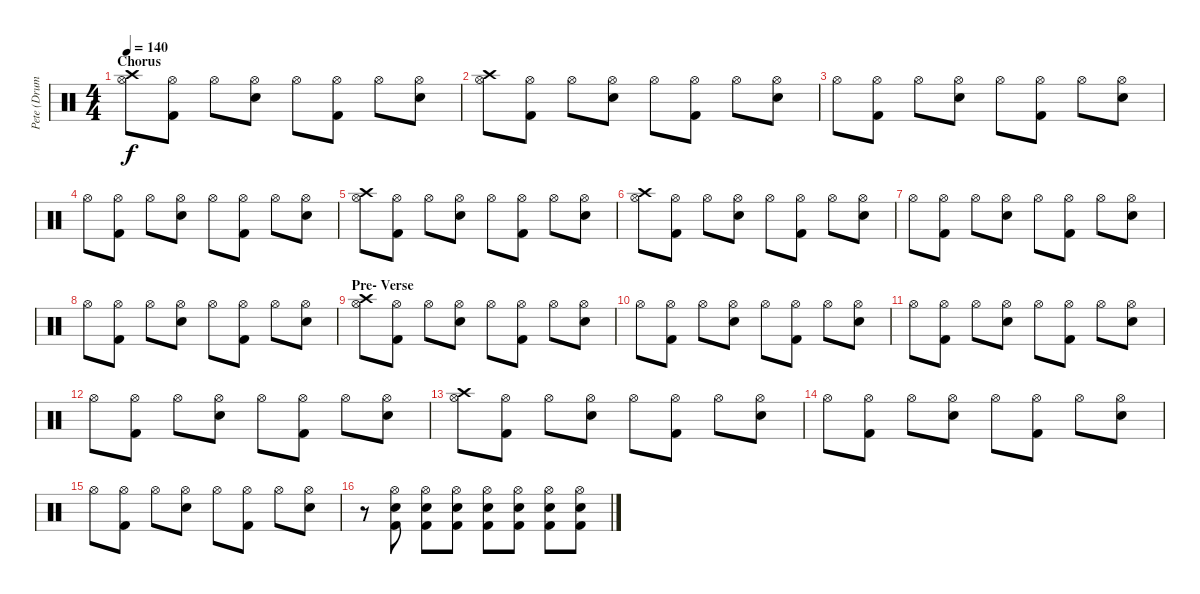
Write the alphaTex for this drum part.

\track ("Pete (Drums)" "Pete (Drum") {instrument percussion}
\staff {score}
\articulation defaults
\ts (4 4)
\section ("" "Chorus")
\tempo 140
\clef neutral
\ks c
("Hi-Hat (open)" "Crash high (hit)").8{dy f} ("Hi-Hat (open)" "Kick (hit) 2").8 "Hi-Hat (open)".8 ("Hi-Hat (open)" "Snare (hit) 2").8 "Hi-Hat (open)".8 ("Hi-Hat (open)" "Kick (hit) 2").8 "Hi-Hat (open)".8 ("Hi-Hat (open)" "Snare (hit) 2").8 |
("Hi-Hat (open)" "Crash high (hit)").8 ("Hi-Hat (open)" "Kick (hit) 2").8 "Hi-Hat (open)".8 ("Hi-Hat (open)" "Snare (hit) 2").8 "Hi-Hat (open)".8 ("Hi-Hat (open)" "Kick (hit) 2").8 "Hi-Hat (open)".8 ("Hi-Hat (open)" "Snare (hit) 2").8 |
"Hi-Hat (open)".8 ("Hi-Hat (open)" "Kick (hit) 2").8 "Hi-Hat (open)".8 ("Hi-Hat (open)" "Snare (hit) 2").8 "Hi-Hat (open)".8 ("Hi-Hat (open)" "Kick (hit) 2").8 "Hi-Hat (open)".8 ("Hi-Hat (open)" "Snare (hit) 2").8 |
"Hi-Hat (open)".8 ("Hi-Hat (open)" "Kick (hit) 2").8 "Hi-Hat (open)".8 ("Hi-Hat (open)" "Snare (hit) 2").8 "Hi-Hat (open)".8 ("Hi-Hat (open)" "Kick (hit) 2").8 "Hi-Hat (open)".8 ("Hi-Hat (open)" "Snare (hit) 2").8 |
("Hi-Hat (open)" "Crash high (hit)").8 ("Hi-Hat (open)" "Kick (hit) 2").8 "Hi-Hat (open)".8 ("Hi-Hat (open)" "Snare (hit) 2").8 "Hi-Hat (open)".8 ("Hi-Hat (open)" "Kick (hit) 2").8 "Hi-Hat (open)".8 ("Hi-Hat (open)" "Snare (hit) 2").8 |
("Hi-Hat (open)" "Crash high (hit)").8 ("Hi-Hat (open)" "Kick (hit) 2").8 "Hi-Hat (open)".8 ("Hi-Hat (open)" "Snare (hit) 2").8 "Hi-Hat (open)".8 ("Hi-Hat (open)" "Kick (hit) 2").8 "Hi-Hat (open)".8 ("Hi-Hat (open)" "Snare (hit) 2").8 |
"Hi-Hat (open)".8 ("Hi-Hat (open)" "Kick (hit) 2").8 "Hi-Hat (open)".8 ("Hi-Hat (open)" "Snare (hit) 2").8 "Hi-Hat (open)".8 ("Hi-Hat (open)" "Kick (hit) 2").8 "Hi-Hat (open)".8 ("Hi-Hat (open)" "Snare (hit) 2").8 |
"Hi-Hat (open)".8 ("Hi-Hat (open)" "Kick (hit) 2").8 "Hi-Hat (open)".8 ("Hi-Hat (open)" "Snare (hit) 2").8 "Hi-Hat (open)".8 ("Hi-Hat (open)" "Kick (hit) 2").8 "Hi-Hat (open)".8 ("Hi-Hat (open)" "Snare (hit) 2").8 |
\section ("" "Pre- Verse")
("Hi-Hat (open)" "Crash high (hit)").8 ("Hi-Hat (open)" "Kick (hit) 2").8 "Hi-Hat (open)".8 ("Hi-Hat (open)" "Snare (hit) 2").8 "Hi-Hat (open)".8 ("Hi-Hat (open)" "Kick (hit) 2").8 "Hi-Hat (open)".8 ("Hi-Hat (open)" "Snare (hit) 2").8 |
"Hi-Hat (open)".8 ("Hi-Hat (open)" "Kick (hit) 2").8 "Hi-Hat (open)".8 ("Hi-Hat (open)" "Snare (hit) 2").8 "Hi-Hat (open)".8 ("Hi-Hat (open)" "Kick (hit) 2").8 "Hi-Hat (open)".8 ("Hi-Hat (open)" "Snare (hit) 2").8 |
"Hi-Hat (open)".8 ("Hi-Hat (open)" "Kick (hit) 2").8 "Hi-Hat (open)".8 ("Hi-Hat (open)" "Snare (hit) 2").8 "Hi-Hat (open)".8 ("Hi-Hat (open)" "Kick (hit) 2").8 "Hi-Hat (open)".8 ("Hi-Hat (open)" "Snare (hit) 2").8 |
"Hi-Hat (open)".8 ("Hi-Hat (open)" "Kick (hit) 2").8 "Hi-Hat (open)".8 ("Hi-Hat (open)" "Snare (hit) 2").8 "Hi-Hat (open)".8 ("Hi-Hat (open)" "Kick (hit) 2").8 "Hi-Hat (open)".8 ("Hi-Hat (open)" "Snare (hit) 2").8 |
("Hi-Hat (open)" "Crash high (hit)").8 ("Hi-Hat (open)" "Kick (hit) 2").8 "Hi-Hat (open)".8 ("Hi-Hat (open)" "Snare (hit) 2").8 "Hi-Hat (open)".8 ("Hi-Hat (open)" "Kick (hit) 2").8 "Hi-Hat (open)".8 ("Hi-Hat (open)" "Snare (hit) 2").8 |
"Hi-Hat (open)".8 ("Hi-Hat (open)" "Kick (hit) 2").8 "Hi-Hat (open)".8 ("Hi-Hat (open)" "Snare (hit) 2").8 "Hi-Hat (open)".8 ("Hi-Hat (open)" "Kick (hit) 2").8 "Hi-Hat (open)".8 ("Hi-Hat (open)" "Snare (hit) 2").8 |
"Hi-Hat (open)".8 ("Hi-Hat (open)" "Kick (hit) 2").8 "Hi-Hat (open)".8 ("Hi-Hat (open)" "Snare (hit) 2").8 "Hi-Hat (open)".8 ("Hi-Hat (open)" "Kick (hit) 2").8 "Hi-Hat (open)".8 ("Hi-Hat (open)" "Snare (hit) 2").8 |
r.8 ("Snare (hit) 2" "Kick (hit) 2" "Hi-Hat (open)").8 ("Snare (hit) 2" "Kick (hit) 2" "Hi-Hat (open)").8 ("Snare (hit) 2" "Kick (hit) 2" "Hi-Hat (open)").8 ("Snare (hit) 2" "Kick (hit) 2" "Hi-Hat (open)").8 ("Snare (hit) 2" "Kick (hit) 2" "Hi-Hat (open)").8 ("Snare (hit) 2" "Kick (hit) 2" "Hi-Hat (open)").8 ("Snare (hit) 2" "Kick (hit) 2" "Hi-Hat (open)").8
